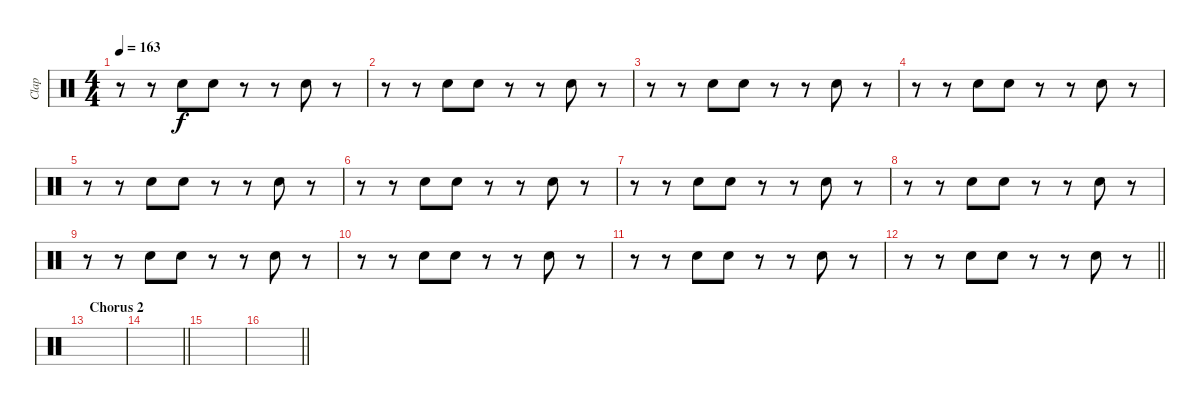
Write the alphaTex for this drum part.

\track ("Clap" "Clap") {instrument percussion}
\staff {score}
\articulation defaults
\ts (4 4)
\tempo 163
\clef neutral
\ks c
r.8{dy f} r.8 "Hand Clap (hit)".8 "Hand Clap (hit)".8 r.8 r.8 "Hand Clap (hit)".8 r.8 |
r.8 r.8 "Hand Clap (hit)".8 "Hand Clap (hit)".8 r.8 r.8 "Hand Clap (hit)".8 r.8 |
r.8 r.8 "Hand Clap (hit)".8 "Hand Clap (hit)".8 r.8 r.8 "Hand Clap (hit)".8 r.8 |
r.8 r.8 "Hand Clap (hit)".8 "Hand Clap (hit)".8 r.8 r.8 "Hand Clap (hit)".8 r.8 |
r.8 r.8 "Hand Clap (hit)".8 "Hand Clap (hit)".8 r.8 r.8 "Hand Clap (hit)".8 r.8 |
r.8 r.8 "Hand Clap (hit)".8 "Hand Clap (hit)".8 r.8 r.8 "Hand Clap (hit)".8 r.8 |
r.8 r.8 "Hand Clap (hit)".8 "Hand Clap (hit)".8 r.8 r.8 "Hand Clap (hit)".8 r.8 |
r.8 r.8 "Hand Clap (hit)".8 "Hand Clap (hit)".8 r.8 r.8 "Hand Clap (hit)".8 r.8 |
r.8 r.8 "Hand Clap (hit)".8 "Hand Clap (hit)".8 r.8 r.8 "Hand Clap (hit)".8 r.8 |
r.8 r.8 "Hand Clap (hit)".8 "Hand Clap (hit)".8 r.8 r.8 "Hand Clap (hit)".8 r.8 |
r.8 r.8 "Hand Clap (hit)".8 "Hand Clap (hit)".8 r.8 r.8 "Hand Clap (hit)".8 r.8 |
\barLineRight lightlight
r.8 r.8 "Hand Clap (hit)".8 "Hand Clap (hit)".8 r.8 r.8 "Hand Clap (hit)".8 r.8 |
\section ("" "Chorus 2")
|
\barLineRight lightlight
|
|
\barLineRight lightlight
